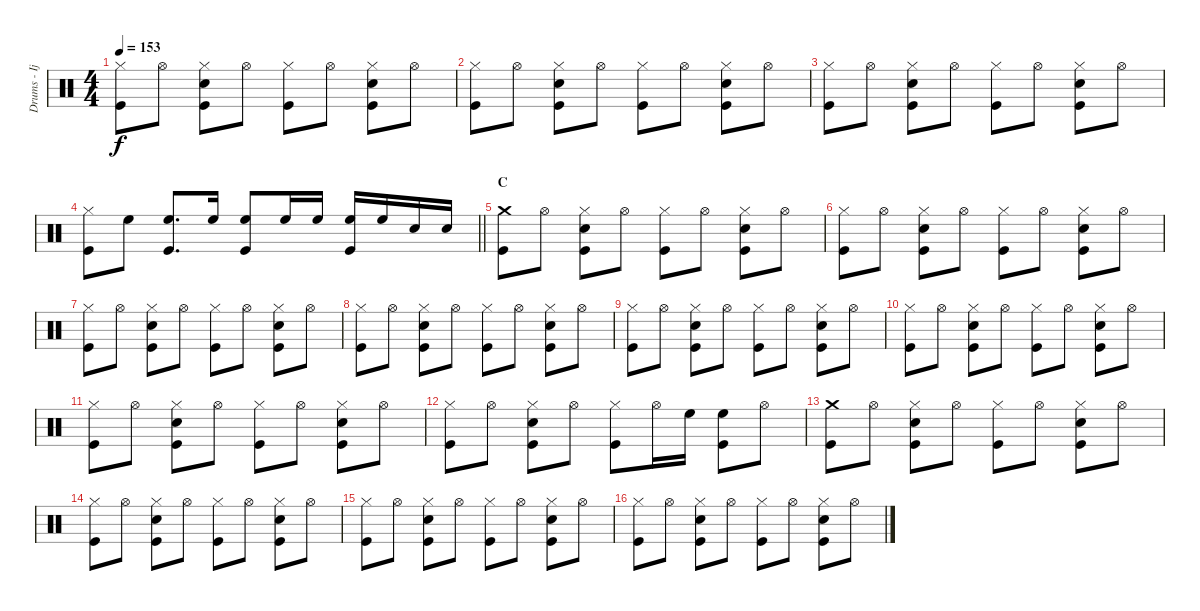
\track ("Drums - Ijichi" "Drums - Ij") {instrument percussion}
\staff {score}
\articulation defaults
\ts (4 4)
\tempo 153
\clef neutral
\ks c
("Hi-Hat (closed)" "Kick (hit)").8{dy f} "Hi-Hat (open)".8 ("Hi-Hat (closed)" "Electric Snare (hit)" "Kick (hit)").8 "Hi-Hat (open)".8 ("Hi-Hat (closed)" "Kick (hit)").8 "Hi-Hat (open)".8 ("Hi-Hat (closed)" "Electric Snare (hit)" "Kick (hit)").8 "Hi-Hat (open)".8 |
("Hi-Hat (closed)" "Kick (hit)").8 "Hi-Hat (open)".8 ("Hi-Hat (closed)" "Electric Snare (hit)" "Kick (hit)").8 "Hi-Hat (open)".8 ("Hi-Hat (closed)" "Kick (hit)").8 "Hi-Hat (open)".8 ("Hi-Hat (closed)" "Electric Snare (hit)" "Kick (hit)").8 "Hi-Hat (open)".8 |
("Hi-Hat (closed)" "Kick (hit)").8 "Hi-Hat (open)".8 ("Hi-Hat (closed)" "Electric Snare (hit)" "Kick (hit)").8 "Hi-Hat (open)".8 ("Hi-Hat (closed)" "Kick (hit)").8 "Hi-Hat (open)".8 ("Hi-Hat (closed)" "Electric Snare (hit)" "Kick (hit)").8 "Hi-Hat (open)".8 |
\barLineRight lightlight
("Hi-Hat (closed)" "Kick (hit)").8 "High Floor Tom (hit)".8 ("High Floor Tom (hit)" "Kick (hit)").8{d} "High Floor Tom (hit)".16 ("High Floor Tom (hit)" "Kick (hit)").8 "High Floor Tom (hit)".16 "High Floor Tom (hit)".16 ("High Floor Tom (hit)" "Kick (hit)").16 "High Floor Tom (hit)".16 "Electric Snare (hit)".16 "Electric Snare (hit)".16 |
\section ("" "C")
("Crash medium (hit)" "Kick (hit)").8 "Hi-Hat (open)".8 ("Hi-Hat (closed)" "Electric Snare (hit)" "Kick (hit)").8 "Hi-Hat (open)".8 ("Hi-Hat (closed)" "Kick (hit)").8 "Hi-Hat (open)".8 ("Hi-Hat (closed)" "Electric Snare (hit)" "Kick (hit)").8 "Hi-Hat (open)".8 |
("Hi-Hat (closed)" "Kick (hit)").8 "Hi-Hat (open)".8 ("Hi-Hat (closed)" "Electric Snare (hit)" "Kick (hit)").8 "Hi-Hat (open)".8 ("Hi-Hat (closed)" "Kick (hit)").8 "Hi-Hat (open)".8 ("Hi-Hat (closed)" "Electric Snare (hit)" "Kick (hit)").8 "Hi-Hat (open)".8 |
("Hi-Hat (closed)" "Kick (hit)").8 "Hi-Hat (open)".8 ("Hi-Hat (closed)" "Electric Snare (hit)" "Kick (hit)").8 "Hi-Hat (open)".8 ("Hi-Hat (closed)" "Kick (hit)").8 "Hi-Hat (open)".8 ("Hi-Hat (closed)" "Electric Snare (hit)" "Kick (hit)").8 "Hi-Hat (open)".8 |
("Hi-Hat (closed)" "Kick (hit)").8 "Hi-Hat (open)".8 ("Hi-Hat (closed)" "Electric Snare (hit)" "Kick (hit)").8 "Hi-Hat (open)".8 ("Hi-Hat (closed)" "Kick (hit)").8 "Hi-Hat (open)".8 ("Hi-Hat (closed)" "Electric Snare (hit)" "Kick (hit)").8 "Hi-Hat (open)".8 |
("Hi-Hat (closed)" "Kick (hit)").8 "Hi-Hat (open)".8 ("Hi-Hat (closed)" "Electric Snare (hit)" "Kick (hit)").8 "Hi-Hat (open)".8 ("Hi-Hat (closed)" "Kick (hit)").8 "Hi-Hat (open)".8 ("Hi-Hat (closed)" "Electric Snare (hit)" "Kick (hit)").8 "Hi-Hat (open)".8 |
("Hi-Hat (closed)" "Kick (hit)").8 "Hi-Hat (open)".8 ("Hi-Hat (closed)" "Electric Snare (hit)" "Kick (hit)").8 "Hi-Hat (open)".8 ("Hi-Hat (closed)" "Kick (hit)").8 "Hi-Hat (open)".8 ("Hi-Hat (closed)" "Electric Snare (hit)" "Kick (hit)").8 "Hi-Hat (open)".8 |
("Hi-Hat (closed)" "Kick (hit)").8 "Hi-Hat (open)".8 ("Hi-Hat (closed)" "Electric Snare (hit)" "Kick (hit)").8 "Hi-Hat (open)".8 ("Hi-Hat (closed)" "Kick (hit)").8 "Hi-Hat (open)".8 ("Hi-Hat (closed)" "Electric Snare (hit)" "Kick (hit)").8 "Hi-Hat (open)".8 |
("Hi-Hat (closed)" "Kick (hit)").8 "Hi-Hat (open)".8 ("Hi-Hat (closed)" "Electric Snare (hit)" "Kick (hit)").8 "Hi-Hat (open)".8 ("Hi-Hat (closed)" "Kick (hit)").8 "Hi-Hat (open)".16 "High Floor Tom (hit)".16 ("High Floor Tom (hit)" "Kick (hit)").8 "Hi-Hat (open)".8 |
("Crash medium (hit)" "Kick (hit)").8 "Hi-Hat (open)".8 ("Hi-Hat (closed)" "Electric Snare (hit)" "Kick (hit)").8 "Hi-Hat (open)".8 ("Hi-Hat (closed)" "Kick (hit)").8 "Hi-Hat (open)".8 ("Hi-Hat (closed)" "Electric Snare (hit)" "Kick (hit)").8 "Hi-Hat (open)".8 |
("Hi-Hat (closed)" "Kick (hit)").8 "Hi-Hat (open)".8 ("Hi-Hat (closed)" "Electric Snare (hit)" "Kick (hit)").8 "Hi-Hat (open)".8 ("Hi-Hat (closed)" "Kick (hit)").8 "Hi-Hat (open)".8 ("Hi-Hat (closed)" "Electric Snare (hit)" "Kick (hit)").8 "Hi-Hat (open)".8 |
("Hi-Hat (closed)" "Kick (hit)").8 "Hi-Hat (open)".8 ("Hi-Hat (closed)" "Electric Snare (hit)" "Kick (hit)").8 "Hi-Hat (open)".8 ("Hi-Hat (closed)" "Kick (hit)").8 "Hi-Hat (open)".8 ("Hi-Hat (closed)" "Electric Snare (hit)" "Kick (hit)").8 "Hi-Hat (open)".8 |
("Hi-Hat (closed)" "Kick (hit)").8 "Hi-Hat (open)".8 ("Hi-Hat (closed)" "Electric Snare (hit)" "Kick (hit)").8 "Hi-Hat (open)".8 ("Hi-Hat (closed)" "Kick (hit)").8 "Hi-Hat (open)".8 ("Hi-Hat (closed)" "Electric Snare (hit)" "Kick (hit)").8 "Hi-Hat (open)".8
